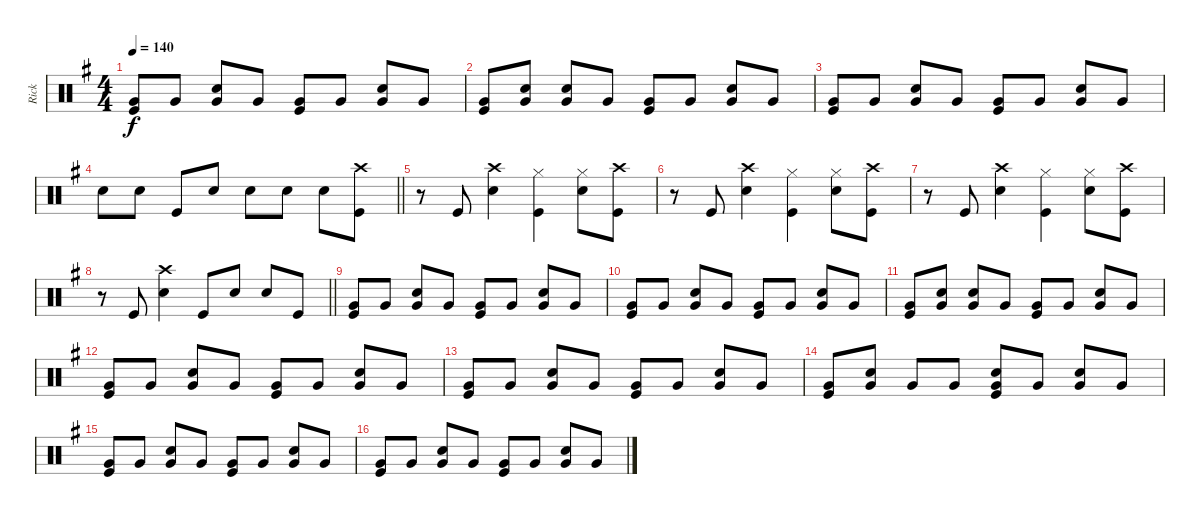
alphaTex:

\track ("Rick" "Rick") {instrument percussion}
\staff {score}
\articulation defaults
\ts (4 4)
\tempo 140
\clef neutral
\ks g
("Very Low Tom (hit)" "Kick (hit)").8{dy f} "Very Low Tom (hit)".8 ("Snare (hit) 2" "Very Low Tom (hit)").8 "Very Low Tom (hit)".8 ("Very Low Tom (hit)" "Kick (hit)").8 "Very Low Tom (hit)".8 ("Snare (hit) 2" "Very Low Tom (hit)").8 "Very Low Tom (hit)".8 |
("Very Low Tom (hit)" "Kick (hit)").8 ("Snare (hit) 2" "Very Low Tom (hit)").8 ("Snare (hit) 2" "Very Low Tom (hit)").8 "Very Low Tom (hit)".8 ("Very Low Tom (hit)" "Kick (hit)").8 "Very Low Tom (hit)".8 ("Snare (hit) 2" "Very Low Tom (hit)").8 "Very Low Tom (hit)".8 |
("Very Low Tom (hit)" "Kick (hit)").8 "Very Low Tom (hit)".8 ("Snare (hit) 2" "Very Low Tom (hit)").8 "Very Low Tom (hit)".8 ("Very Low Tom (hit)" "Kick (hit)").8 "Very Low Tom (hit)".8 ("Snare (hit) 2" "Very Low Tom (hit)").8 "Very Low Tom (hit)".8 |
\barLineRight lightlight "Snare (hit) 2".8 "Snare (hit) 2".8 "Kick (hit)".8 "Snare (hit) 2".8 "Snare (hit) 2".8 "Snare (hit) 2".8 "Snare (hit) 2".8
("Crash high (hit)" "Kick (hit)").8 |
r.8 "Kick (hit)".8 ("Crash high (hit)" "Snare (hit) 2").4 ("Hi-Hat (closed)" "Kick (hit)").4 ("Hi-Hat (closed)" "Snare (hit) 2").8 ("Crash high (hit)" "Kick (hit)").8 |
r.8 "Kick (hit)".8 ("Crash high (hit)" "Snare (hit) 2").4 ("Hi-Hat (closed)" "Kick (hit)").4 ("Hi-Hat (closed)" "Snare (hit) 2").8 ("Crash high (hit)" "Kick (hit)").8 |
r.8 "Kick (hit)".8 ("Crash high (hit)" "Snare (hit) 2").4 ("Hi-Hat (closed)" "Kick (hit)").4 ("Hi-Hat (closed)" "Snare (hit) 2").8 ("Crash high (hit)" "Kick (hit)").8 |
\barLineRight lightlight
r.8 "Kick (hit)".8 ("Crash high (hit)" "Snare (hit) 2").4 "Kick (hit)".8 "Snare (hit) 2".8 "Snare (hit) 2".8 "Kick (hit)".8 |
("Very Low Tom (hit)" "Kick (hit)").8 "Very Low Tom (hit)".8 ("Snare (hit) 2" "Very Low Tom (hit)").8 "Very Low Tom (hit)".8 ("Very Low Tom (hit)" "Kick (hit)").8 "Very Low Tom (hit)".8 ("Snare (hit) 2" "Very Low Tom (hit)").8 "Very Low Tom (hit)".8 |
("Very Low Tom (hit)" "Kick (hit)").8 "Very Low Tom (hit)".8 ("Snare (hit) 2" "Very Low Tom (hit)").8 "Very Low Tom (hit)".8 ("Very Low Tom (hit)" "Kick (hit)").8 "Very Low Tom (hit)".8 ("Snare (hit) 2" "Very Low Tom (hit)").8 "Very Low Tom (hit)".8 |
("Very Low Tom (hit)" "Kick (hit)").8 ("Very Low Tom (hit)" "Snare (hit) 2").8 ("Very Low Tom (hit)" "Snare (hit) 2").8 "Very Low Tom (hit)".8 ("Very Low Tom (hit)" "Kick (hit)").8 "Very Low Tom (hit)".8 ("Snare (hit) 2" "Very Low Tom (hit)").8 "Very Low Tom (hit)".8 |
("Very Low Tom (hit)" "Kick (hit)").8 "Very Low Tom (hit)".8 ("Snare (hit) 2" "Very Low Tom (hit)").8 "Very Low Tom (hit)".8 ("Very Low Tom (hit)" "Kick (hit)").8 "Very Low Tom (hit)".8 ("Very Low Tom (hit)" "Snare (hit) 2").8 "Very Low Tom (hit)".8 |
("Very Low Tom (hit)" "Kick (hit)").8 "Very Low Tom (hit)".8 ("Snare (hit) 2" "Very Low Tom (hit)").8 "Very Low Tom (hit)".8 ("Very Low Tom (hit)" "Kick (hit)").8 "Very Low Tom (hit)".8 ("Very Low Tom (hit)" "Snare (hit) 2").8 "Very Low Tom (hit)".8 |
("Very Low Tom (hit)" "Kick (hit)").8 ("Snare (hit) 2" "Very Low Tom (hit)").8 "Very Low Tom (hit)".8 "Very Low Tom (hit)".8 ("Snare (hit) 2" "Very Low Tom (hit)" "Kick (hit)").8 "Very Low Tom (hit)".8 ("Snare (hit) 2" "Very Low Tom (hit)").8 "Very Low Tom (hit)".8 |
("Very Low Tom (hit)" "Kick (hit)").8 "Very Low Tom (hit)".8 ("Snare (hit) 2" "Very Low Tom (hit)").8 "Very Low Tom (hit)".8 ("Very Low Tom (hit)" "Kick (hit)").8 "Very Low Tom (hit)".8 ("Snare (hit) 2" "Very Low Tom (hit)").8 "Very Low Tom (hit)".8 |
("Very Low Tom (hit)" "Kick (hit)").8 "Very Low Tom (hit)".8 ("Snare (hit) 2" "Very Low Tom (hit)").8 "Very Low Tom (hit)".8 ("Very Low Tom (hit)" "Kick (hit)").8 "Very Low Tom (hit)".8 ("Snare (hit) 2" "Very Low Tom (hit)").8 "Very Low Tom (hit)".8
